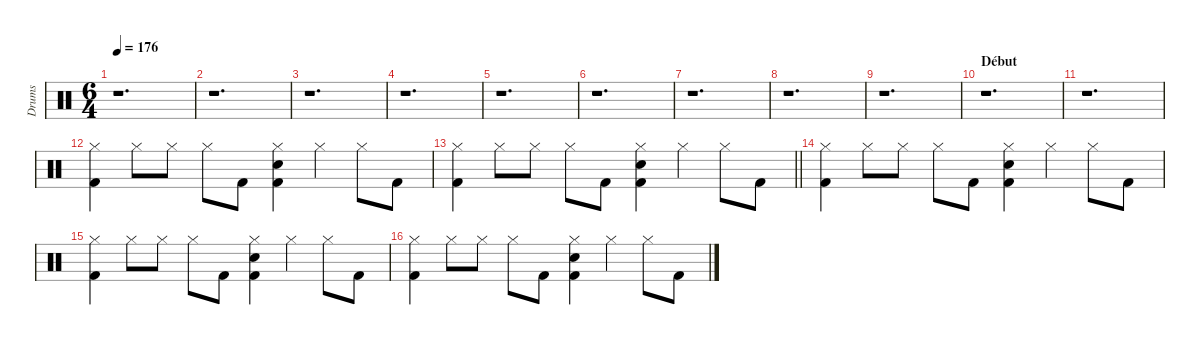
\hideDynamics
\bracketExtendMode groupsimilarinstruments
\otherSystemsTrackNameOrientation horizontal
\track ("Drumkit" "Drums") {defaultSystemsLayout 4 instrument percussion}
\staff {score}
\articulation defaults
\ts (6 4)
\tempo 176
\clef neutral
\ks c
r.1{d dy f beam Down} |
r.1{d beam Down} |
r.1{d beam Down} |
r.1{d beam Down} |
r.1{d beam Down} |
r.1{d beam Down} |
r.1{d beam Down} |
r.1{d beam Down} |
r.1{d beam Down} |
\section ("" "Début")
r.1{d beam Down} |
r.1{d beam Down} |
("Hi-Hat (closed)" "Kick (hit) 2").4{beam Down} "Hi-Hat (closed)".8{beam Down} "Hi-Hat (closed)".8{beam Down} "Hi-Hat (closed)".8{beam Down} "Kick (hit) 2".8{beam Down} ("Hi-Hat (closed)" "Snare (hit) 2" "Kick (hit) 2").4{beam Down} "Hi-Hat (closed)".4{beam Down} "Hi-Hat (closed)".8{beam Down} "Kick (hit) 2".8{beam Down} |
\barLineRight lightlight
("Hi-Hat (closed)" "Kick (hit) 2").4{beam Down} "Hi-Hat (closed)".8{beam Down} "Hi-Hat (closed)".8{beam Down} "Hi-Hat (closed)".8{beam Down} "Kick (hit) 2".8{beam Down} ("Hi-Hat (closed)" "Snare (hit) 2" "Kick (hit) 2").4{beam Down} "Hi-Hat (closed)".4{beam Down} "Hi-Hat (closed)".8{beam Down} "Kick (hit) 2".8{beam Down} |
("Hi-Hat (closed)" "Kick (hit) 2").4{beam Down} "Hi-Hat (closed)".8{beam Down} "Hi-Hat (closed)".8{beam Down} "Hi-Hat (closed)".8{beam Down} "Kick (hit) 2".8{beam Down} ("Hi-Hat (closed)" "Snare (hit) 2" "Kick (hit) 2").4{beam Down} "Hi-Hat (closed)".4{beam Down} "Hi-Hat (closed)".8{beam Down} "Kick (hit) 2".8{beam Down} |
("Hi-Hat (closed)" "Kick (hit) 2").4{beam Down} "Hi-Hat (closed)".8{beam Down} "Hi-Hat (closed)".8{beam Down} "Hi-Hat (closed)".8{beam Down} "Kick (hit) 2".8{beam Down} ("Hi-Hat (closed)" "Snare (hit) 2" "Kick (hit) 2").4{beam Down} "Hi-Hat (closed)".4{beam Down} "Hi-Hat (closed)".8{beam Down} "Kick (hit) 2".8{beam Down} |
("Hi-Hat (closed)" "Kick (hit) 2").4{beam Down} "Hi-Hat (closed)".8{beam Down} "Hi-Hat (closed)".8{beam Down} "Hi-Hat (closed)".8{beam Down} "Kick (hit) 2".8{beam Down} ("Hi-Hat (closed)" "Snare (hit) 2" "Kick (hit) 2").4{beam Down} "Hi-Hat (closed)".4{beam Down} "Hi-Hat (closed)".8{beam Down} "Kick (hit) 2".8{beam Down}
